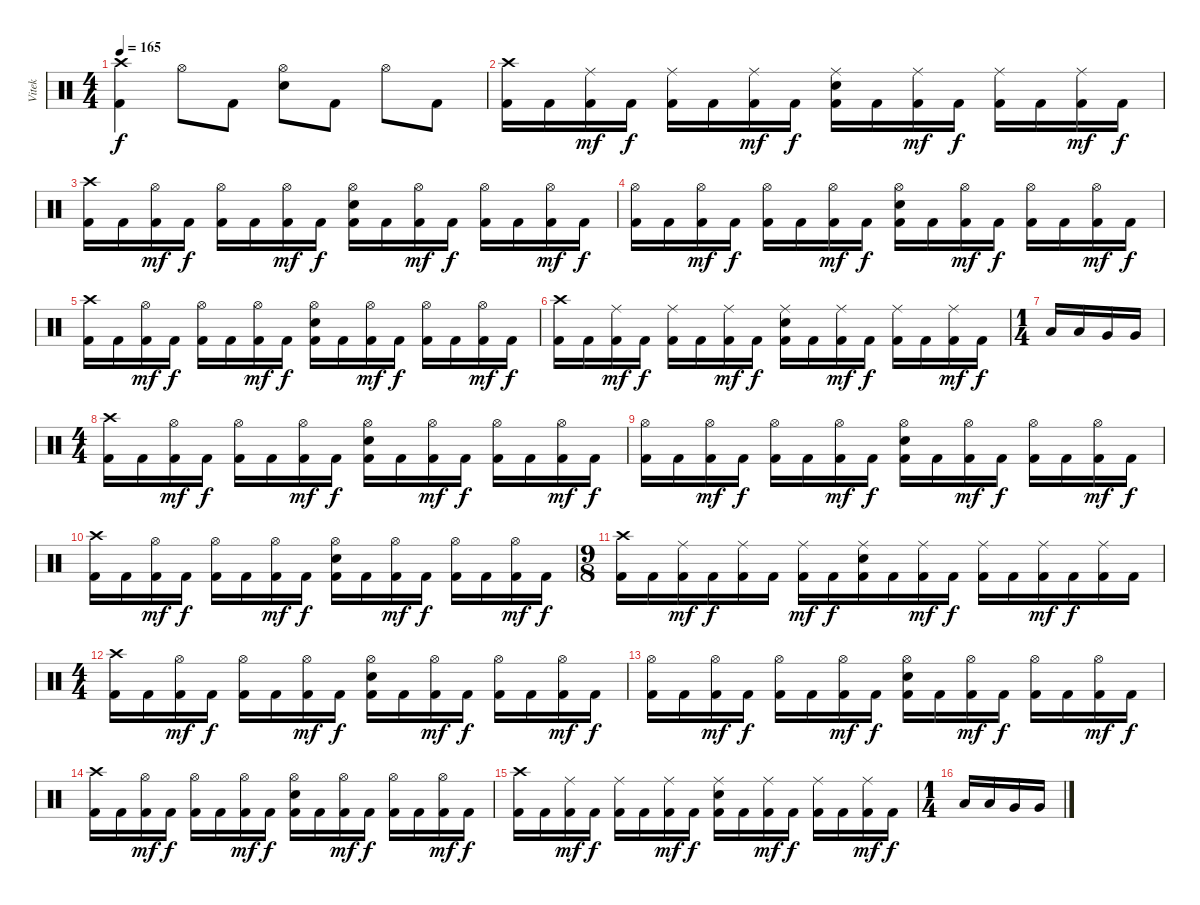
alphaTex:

\track ("Vitek" "Vitek") {instrument percussion}
\staff {score}
\articulation defaults
\ts (4 4)
\tempo 165
\clef neutral
\ks c
("Crash high (hit)" "Kick (hit) 2").4{dy f} "Hi-Hat (open)".8 "Kick (hit) 2".8 ("Hi-Hat (open)" "Electric Snare (hit)").8 "Kick (hit) 2".8 "Hi-Hat (open)".8 "Kick (hit) 2".8 |
("Crash high (hit)" "Kick (hit) 2").16 "Kick (hit) 2".16 ("Ride (middle)" "Kick (hit) 2").16{dy mf} "Kick (hit) 2".16{dy f} ("Ride (middle)" "Kick (hit) 2").16 "Kick (hit) 2".16 ("Ride (middle)" "Kick (hit) 2").16{dy mf} "Kick (hit) 2".16{dy f} ("Ride (middle)" "Electric Snare (hit)" "Kick (hit) 2").16 "Kick (hit) 2".16 ("Ride (middle)" "Kick (hit) 2").16{dy mf} "Kick (hit) 2".16{dy f} ("Ride (middle)" "Kick (hit) 2").16 "Kick (hit) 2".16 ("Ride (middle)" "Kick (hit) 2").16{dy mf} "Kick (hit) 2".16{dy f} |
("Crash high (hit)" "Kick (hit) 2").16 "Kick (hit) 2".16 ("Hi-Hat (open)" "Kick (hit) 2").16{dy mf} "Kick (hit) 2".16{dy f} ("Hi-Hat (open)" "Kick (hit) 2").16 "Kick (hit) 2".16 ("Hi-Hat (open)" "Kick (hit) 2").16{dy mf} "Kick (hit) 2".16{dy f} ("Hi-Hat (open)" "Electric Snare (hit)" "Kick (hit) 2").16 "Kick (hit) 2".16 ("Hi-Hat (open)" "Kick (hit) 2").16{dy mf} "Kick (hit) 2".16{dy f} ("Hi-Hat (open)" "Kick (hit) 2").16 "Kick (hit) 2".16 ("Hi-Hat (open)" "Kick (hit) 2").16{dy mf} "Kick (hit) 2".16{dy f} |
("Hi-Hat (open)" "Kick (hit) 2").16 "Kick (hit) 2".16 ("Hi-Hat (open)" "Kick (hit) 2").16{dy mf} "Kick (hit) 2".16{dy f} ("Hi-Hat (open)" "Kick (hit) 2").16 "Kick (hit) 2".16 ("Hi-Hat (open)" "Kick (hit) 2").16{dy mf} "Kick (hit) 2".16{dy f} ("Hi-Hat (open)" "Electric Snare (hit)" "Kick (hit) 2").16 "Kick (hit) 2".16 ("Hi-Hat (open)" "Kick (hit) 2").16{dy mf} "Kick (hit) 2".16{dy f} ("Hi-Hat (open)" "Kick (hit) 2").16 "Kick (hit) 2".16 ("Hi-Hat (open)" "Kick (hit) 2").16{dy mf} "Kick (hit) 2".16{dy f} |
("Crash high (hit)" "Kick (hit) 2").16 "Kick (hit) 2".16 ("Hi-Hat (open)" "Kick (hit) 2").16{dy mf} "Kick (hit) 2".16{dy f} ("Hi-Hat (open)" "Kick (hit) 2").16 "Kick (hit) 2".16 ("Hi-Hat (open)" "Kick (hit) 2").16{dy mf} "Kick (hit) 2".16{dy f} ("Hi-Hat (open)" "Electric Snare (hit)" "Kick (hit) 2").16 "Kick (hit) 2".16 ("Hi-Hat (open)" "Kick (hit) 2").16{dy mf} "Kick (hit) 2".16{dy f} ("Hi-Hat (open)" "Kick (hit) 2").16 "Kick (hit) 2".16 ("Hi-Hat (open)" "Kick (hit) 2").16{dy mf} "Kick (hit) 2".16{dy f} |
("Crash high (hit)" "Kick (hit) 2").16 "Kick (hit) 2".16 ("Ride (middle)" "Kick (hit) 2").16{dy mf} "Kick (hit) 2".16{dy f} ("Ride (middle)" "Kick (hit) 2").16 "Kick (hit) 2".16 ("Ride (middle)" "Kick (hit) 2").16{dy mf} "Kick (hit) 2".16{dy f} ("Ride (middle)" "Electric Snare (hit)" "Kick (hit) 2").16 "Kick (hit) 2".16 ("Ride (middle)" "Kick (hit) 2").16{dy mf} "Kick (hit) 2".16{dy f} ("Ride (middle)" "Kick (hit) 2").16 "Kick (hit) 2".16 ("Ride (middle)" "Kick (hit) 2").16{dy mf} "Kick (hit) 2".16{dy f} |
\ts (1 4)
"Low Tom (hit)".16 "Low Tom (hit)".16 "Very Low Tom (hit)".16 "Very Low Tom (hit)".16 |
\ts (4 4)
("Crash high (hit)" "Kick (hit) 2").16 "Kick (hit) 2".16 ("Hi-Hat (open)" "Kick (hit) 2").16{dy mf} "Kick (hit) 2".16{dy f} ("Hi-Hat (open)" "Kick (hit) 2").16 "Kick (hit) 2".16 ("Hi-Hat (open)" "Kick (hit) 2").16{dy mf} "Kick (hit) 2".16{dy f} ("Hi-Hat (open)" "Electric Snare (hit)" "Kick (hit) 2").16 "Kick (hit) 2".16 ("Hi-Hat (open)" "Kick (hit) 2").16{dy mf} "Kick (hit) 2".16{dy f} ("Hi-Hat (open)" "Kick (hit) 2").16 "Kick (hit) 2".16 ("Hi-Hat (open)" "Kick (hit) 2").16{dy mf} "Kick (hit) 2".16{dy f} |
("Hi-Hat (open)" "Kick (hit) 2").16 "Kick (hit) 2".16 ("Hi-Hat (open)" "Kick (hit) 2").16{dy mf} "Kick (hit) 2".16{dy f} ("Hi-Hat (open)" "Kick (hit) 2").16 "Kick (hit) 2".16 ("Hi-Hat (open)" "Kick (hit) 2").16{dy mf} "Kick (hit) 2".16{dy f} ("Hi-Hat (open)" "Electric Snare (hit)" "Kick (hit) 2").16 "Kick (hit) 2".16 ("Hi-Hat (open)" "Kick (hit) 2").16{dy mf} "Kick (hit) 2".16{dy f} ("Hi-Hat (open)" "Kick (hit) 2").16 "Kick (hit) 2".16 ("Hi-Hat (open)" "Kick (hit) 2").16{dy mf} "Kick (hit) 2".16{dy f} |
("Crash high (hit)" "Kick (hit) 2").16 "Kick (hit) 2".16 ("Hi-Hat (open)" "Kick (hit) 2").16{dy mf} "Kick (hit) 2".16{dy f} ("Hi-Hat (open)" "Kick (hit) 2").16 "Kick (hit) 2".16 ("Hi-Hat (open)" "Kick (hit) 2").16{dy mf} "Kick (hit) 2".16{dy f} ("Hi-Hat (open)" "Electric Snare (hit)" "Kick (hit) 2").16 "Kick (hit) 2".16 ("Hi-Hat (open)" "Kick (hit) 2").16{dy mf} "Kick (hit) 2".16{dy f} ("Hi-Hat (open)" "Kick (hit) 2").16 "Kick (hit) 2".16 ("Hi-Hat (open)" "Kick (hit) 2").16{dy mf} "Kick (hit) 2".16{dy f} |
\ts (9 8)
("Crash high (hit)" "Kick (hit) 2").16 "Kick (hit) 2".16 ("Ride (middle)" "Kick (hit) 2").16{dy mf} "Kick (hit) 2".16{dy f} ("Ride (middle)" "Kick (hit) 2").16 "Kick (hit) 2".16 ("Ride (middle)" "Kick (hit) 2").16{dy mf} "Kick (hit) 2".16{dy f} ("Ride (middle)" "Electric Snare (hit)" "Kick (hit) 2").16 "Kick (hit) 2".16 ("Ride (middle)" "Kick (hit) 2").16{dy mf} "Kick (hit) 2".16{dy f} ("Ride (middle)" "Kick (hit) 2").16 "Kick (hit) 2".16 ("Ride (middle)" "Kick (hit) 2").16{dy mf} "Kick (hit) 2".16{dy f} ("Ride (middle)" "Kick (hit) 2").16 "Kick (hit) 2".16 |
\ts (4 4)
("Crash high (hit)" "Kick (hit) 2").16 "Kick (hit) 2".16 ("Hi-Hat (open)" "Kick (hit) 2").16{dy mf} "Kick (hit) 2".16{dy f} ("Hi-Hat (open)" "Kick (hit) 2").16 "Kick (hit) 2".16 ("Hi-Hat (open)" "Kick (hit) 2").16{dy mf} "Kick (hit) 2".16{dy f} ("Hi-Hat (open)" "Electric Snare (hit)" "Kick (hit) 2").16 "Kick (hit) 2".16 ("Hi-Hat (open)" "Kick (hit) 2").16{dy mf} "Kick (hit) 2".16{dy f} ("Hi-Hat (open)" "Kick (hit) 2").16 "Kick (hit) 2".16 ("Hi-Hat (open)" "Kick (hit) 2").16{dy mf} "Kick (hit) 2".16{dy f} |
("Hi-Hat (open)" "Kick (hit) 2").16 "Kick (hit) 2".16 ("Hi-Hat (open)" "Kick (hit) 2").16{dy mf} "Kick (hit) 2".16{dy f} ("Hi-Hat (open)" "Kick (hit) 2").16 "Kick (hit) 2".16 ("Hi-Hat (open)" "Kick (hit) 2").16{dy mf} "Kick (hit) 2".16{dy f} ("Hi-Hat (open)" "Electric Snare (hit)" "Kick (hit) 2").16 "Kick (hit) 2".16 ("Hi-Hat (open)" "Kick (hit) 2").16{dy mf} "Kick (hit) 2".16{dy f} ("Hi-Hat (open)" "Kick (hit) 2").16 "Kick (hit) 2".16 ("Hi-Hat (open)" "Kick (hit) 2").16{dy mf} "Kick (hit) 2".16{dy f} |
("Crash high (hit)" "Kick (hit) 2").16 "Kick (hit) 2".16 ("Hi-Hat (open)" "Kick (hit) 2").16{dy mf} "Kick (hit) 2".16{dy f} ("Hi-Hat (open)" "Kick (hit) 2").16 "Kick (hit) 2".16 ("Hi-Hat (open)" "Kick (hit) 2").16{dy mf} "Kick (hit) 2".16{dy f} ("Hi-Hat (open)" "Electric Snare (hit)" "Kick (hit) 2").16 "Kick (hit) 2".16 ("Hi-Hat (open)" "Kick (hit) 2").16{dy mf} "Kick (hit) 2".16{dy f} ("Hi-Hat (open)" "Kick (hit) 2").16 "Kick (hit) 2".16 ("Hi-Hat (open)" "Kick (hit) 2").16{dy mf} "Kick (hit) 2".16{dy f} |
("Crash high (hit)" "Kick (hit) 2").16 "Kick (hit) 2".16 ("Ride (middle)" "Kick (hit) 2").16{dy mf} "Kick (hit) 2".16{dy f} ("Ride (middle)" "Kick (hit) 2").16 "Kick (hit) 2".16 ("Ride (middle)" "Kick (hit) 2").16{dy mf} "Kick (hit) 2".16{dy f} ("Ride (middle)" "Electric Snare (hit)" "Kick (hit) 2").16 "Kick (hit) 2".16 ("Ride (middle)" "Kick (hit) 2").16{dy mf} "Kick (hit) 2".16{dy f} ("Ride (middle)" "Kick (hit) 2").16 "Kick (hit) 2".16 ("Ride (middle)" "Kick (hit) 2").16{dy mf} "Kick (hit) 2".16{dy f} |
\ts (1 4)
"Low Tom (hit)".16 "Low Tom (hit)".16 "Very Low Tom (hit)".16 "Very Low Tom (hit)".16
